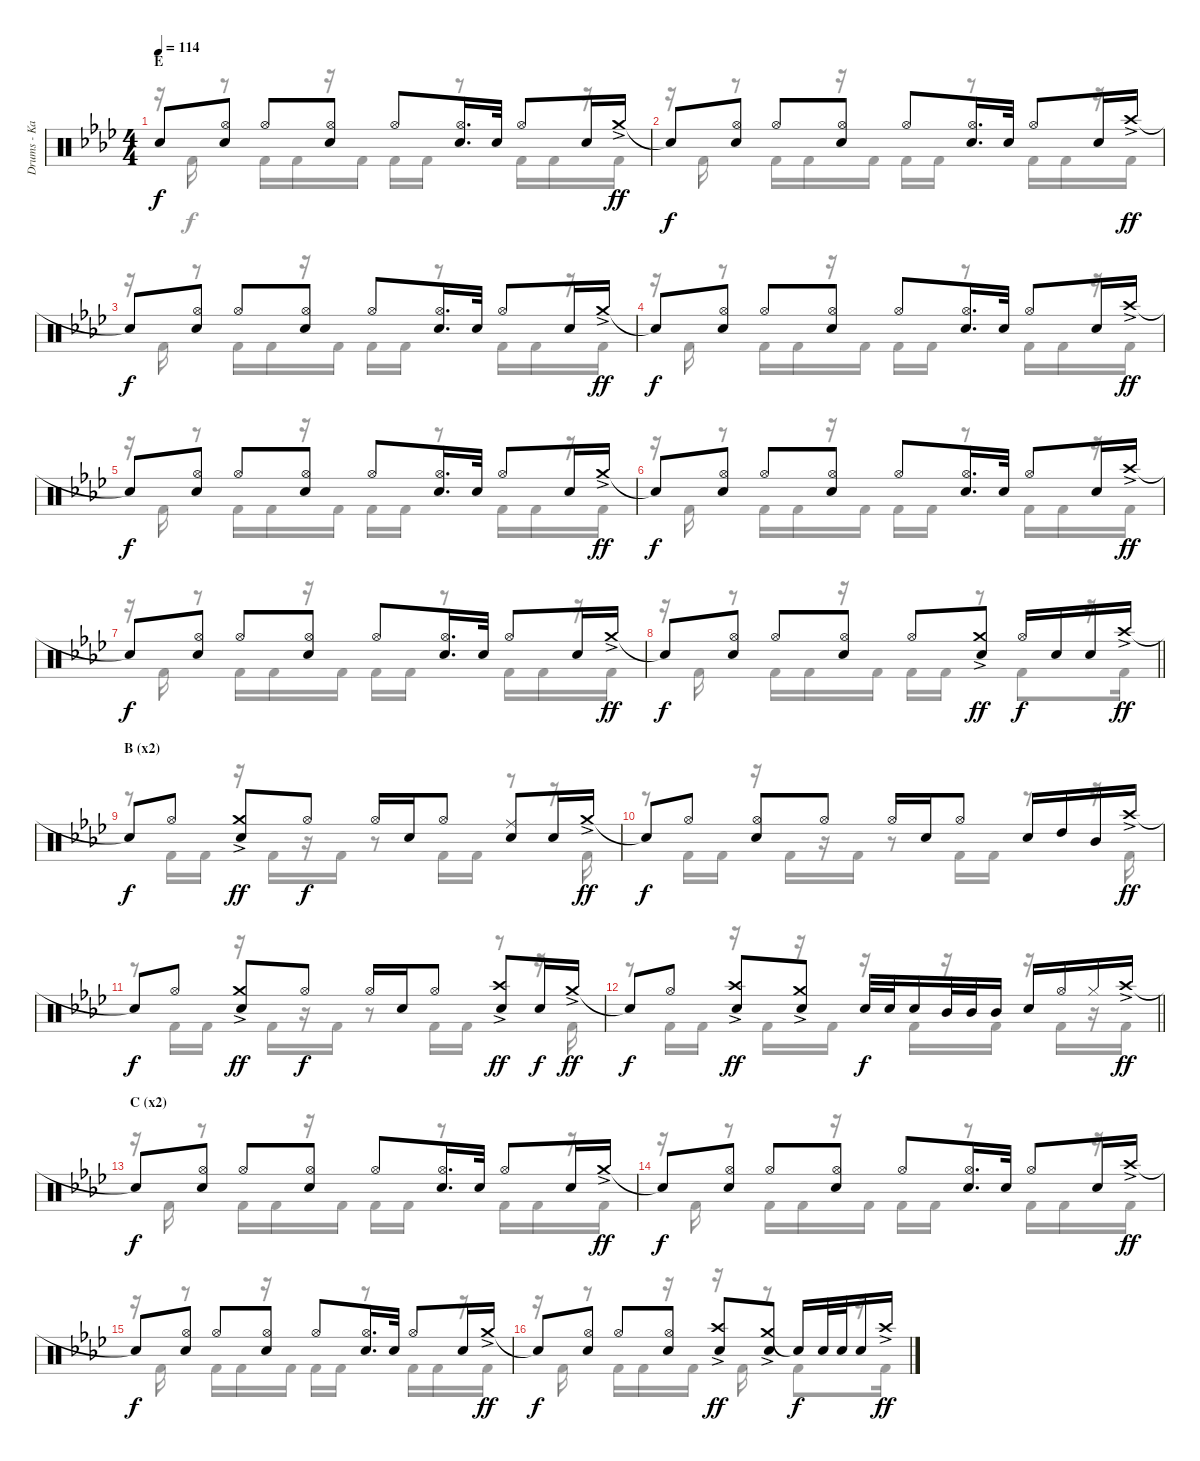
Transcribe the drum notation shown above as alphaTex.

\track ("Drums - Kai" "Drums - Ka") {instrument percussion}
\staff {score}
\articulation defaults
\voice
\ts (4 4)
\section ("" "E")
\tempo 114
\clef neutral
\ks ab "Snare (hit)"{t}.8{dy f}
("Hi-Hat (open)" "Snare (hit) 2").8 "Hi-Hat (open)".8 ("Hi-Hat (open)" "Snare (hit) 2").8 "Hi-Hat (open)".8 ("Hi-Hat (open)" "Snare (hit) 2").16{d} "Snare (hit) 2".32 "Hi-Hat (open)".8 "Snare (hit) 2".16 "Crash medium (hit)"{ac}.16{dy ff} |
"Snare (hit)"{t}.8{dy f} ("Hi-Hat (open)" "Snare (hit) 2").8 "Hi-Hat (open)".8 ("Hi-Hat (open)" "Snare (hit) 2").8 "Hi-Hat (open)".8 ("Hi-Hat (open)" "Snare (hit) 2").16{d} "Snare (hit) 2".32 "Hi-Hat (open)".8 "Snare (hit) 2".16 "Crash high (hit)"{ac}.16{dy ff} |
"Snare (hit)"{t}.8{dy f} ("Hi-Hat (open)" "Snare (hit) 2").8 "Hi-Hat (open)".8 ("Hi-Hat (open)" "Snare (hit) 2").8 "Hi-Hat (open)".8 ("Hi-Hat (open)" "Snare (hit) 2").16{d} "Snare (hit) 2".32 "Hi-Hat (open)".8 "Snare (hit) 2".16 "Crash medium (hit)"{ac}.16{dy ff} |
"Snare (hit)"{t}.8{dy f} ("Hi-Hat (open)" "Snare (hit) 2").8 "Hi-Hat (open)".8 ("Hi-Hat (open)" "Snare (hit) 2").8 "Hi-Hat (open)".8 ("Hi-Hat (open)" "Snare (hit) 2").16{d} "Snare (hit) 2".32 "Hi-Hat (open)".8 "Snare (hit) 2".16 "Crash high (hit)"{ac}.16{dy ff} |
"Snare (hit)"{t}.8{dy f} ("Hi-Hat (open)" "Snare (hit) 2").8 "Hi-Hat (open)".8 ("Hi-Hat (open)" "Snare (hit) 2").8 "Hi-Hat (open)".8 ("Hi-Hat (open)" "Snare (hit) 2").16{d} "Snare (hit) 2".32 "Hi-Hat (open)".8 "Snare (hit) 2".16 "Crash medium (hit)"{ac}.16{dy ff} |
"Snare (hit)"{t}.8{dy f} ("Hi-Hat (open)" "Snare (hit) 2").8 "Hi-Hat (open)".8 ("Hi-Hat (open)" "Snare (hit) 2").8 "Hi-Hat (open)".8 ("Hi-Hat (open)" "Snare (hit) 2").16{d} "Snare (hit) 2".32 "Hi-Hat (open)".8 "Snare (hit) 2".16 "Crash high (hit)"{ac}.16{dy ff} |
"Snare (hit)"{t}.8{dy f} ("Hi-Hat (open)" "Snare (hit) 2").8 "Hi-Hat (open)".8 ("Hi-Hat (open)" "Snare (hit) 2").8 "Hi-Hat (open)".8 ("Hi-Hat (open)" "Snare (hit) 2").16{d} "Snare (hit) 2".32 "Hi-Hat (open)".8 "Snare (hit) 2".16 "Crash medium (hit)"{ac}.16{dy ff} |
\barLineRight lightlight "Snare (hit)"{t}.8{dy f}
("Hi-Hat (open)" "Snare (hit) 2").8 "Hi-Hat (open)".8 ("Hi-Hat (open)" "Snare (hit) 2").8 "Hi-Hat (open)".8 ("Crash medium (hit)"{ac} "Snare (hit) 2").8{dy ff} "Hi-Hat (open)".16{dy f} "Snare (hit) 2".16 "Snare (hit) 2".16 "Crash high (hit)"{ac}.16{dy ff} |
\section ("" "B (x2)")
"Snare (hit)"{t}.8{dy f} "Hi-Hat (open)".8 ("Crash medium (hit)"{ac} "Snare (hit) 2").8{dy ff} "Hi-Hat (open)".8{dy f} "Hi-Hat (open)".16 "Snare (hit) 2".16 "Hi-Hat (open)".8 ("Ride (middle)" "Snare (hit) 2").8 "Snare (hit) 2".16 "Crash medium (hit)"{ac}.16{dy ff} |
"Snare (hit)"{t}.8{dy f} "Hi-Hat (open)".8 ("Hi-Hat (open)" "Snare (hit) 2").8 "Hi-Hat (open)".8 "Hi-Hat (open)".16 "Snare (hit) 2".16 "Hi-Hat (open)".8 "Snare (hit) 2".16 "High Tom (hit)".16 "Mid Tom (hit)".16 "Crash high (hit)"{ac}.16{dy ff} |
"Snare (hit)"{t}.8{dy f} "Hi-Hat (open)".8 ("Crash medium (hit)"{ac} "Snare (hit) 2").8{dy ff} "Hi-Hat (open)".8{dy f} "Hi-Hat (open)".16 "Snare (hit) 2".16 "Hi-Hat (open)".8 ("Crash high (hit)"{ac} "Snare (hit) 2").8{dy ff} "Snare (hit) 2".16{dy f} "Crash medium (hit)"{ac}.16{dy ff} |
\barLineRight lightlight "Snare (hit)"{t}.8{dy f} "Hi-Hat (open)".8
("Crash high (hit)"{ac} "Snare (hit) 2").8{dy ff} ("Crash medium (hit)"{ac} "Snare (hit) 2").8 "Snare (hit) 2".32{dy f} "Snare (hit) 2".32 "Snare (hit) 2".16 "Mid Tom (hit)".32 "Mid Tom (hit)".32 "Mid Tom (hit)".16 "Snare (hit) 2".16 "Hi-Hat (open)".16 "Hi-Hat (closed)".16 "Crash high (hit)"{ac}.16{dy ff} |
\section ("" "C (x2)")
"Snare (hit)"{t}.8{dy f} ("Hi-Hat (open)" "Snare (hit) 2").8 "Hi-Hat (open)".8 ("Hi-Hat (open)" "Snare (hit) 2").8 "Hi-Hat (open)".8 ("Hi-Hat (open)" "Snare (hit) 2").16{d} "Snare (hit) 2".32 "Hi-Hat (open)".8 "Snare (hit) 2".16 "Crash medium (hit)"{ac}.16{dy ff} |
"Snare (hit)"{t}.8{dy f} ("Hi-Hat (open)" "Snare (hit) 2").8 "Hi-Hat (open)".8 ("Hi-Hat (open)" "Snare (hit) 2").8 "Hi-Hat (open)".8 ("Hi-Hat (open)" "Snare (hit) 2").16{d} "Snare (hit) 2".32 "Hi-Hat (open)".8 "Snare (hit) 2".16 "Crash high (hit)"{ac}.16{dy ff} |
"Snare (hit)"{t}.8{dy f} ("Hi-Hat (open)" "Snare (hit) 2").8 "Hi-Hat (open)".8 ("Hi-Hat (open)" "Snare (hit) 2").8 "Hi-Hat (open)".8 ("Hi-Hat (open)" "Snare (hit) 2").16{d} "Snare (hit) 2".32 "Hi-Hat (open)".8 "Snare (hit) 2".16 "Crash medium (hit)"{ac}.16{dy ff} |
"Snare (hit)"{t}.8{dy f} ("Hi-Hat (open)" "Snare (hit) 2").8 "Hi-Hat (open)".8 ("Hi-Hat (open)" "Snare (hit) 2").8 ("Crash high (hit)"{ac} "Snare (hit) 2").8{dy ff} ("Crash medium (hit)"{ac} "Snare (hit) 2").8 "Snare (hit)"{t}.16{dy f} "Snare (hit) 2".32 "Snare (hit) 2".32 "Snare (hit) 2".16 "Crash high (hit)"{ac}.16{dy ff}
\voice
\clef neutral
\ottava regular
\simile none
\ks ab
r.16{dy f} "Kick (hit) 2".16 r.8 "Kick (hit) 2".16 "Kick (hit) 2".16 r.16 "Kick (hit) 2".16 "Kick (hit) 2".16 "Kick (hit) 2".16 r.8 "Kick (hit) 2".16 "Kick (hit) 2".16 r.16 "Kick (hit) 2".16 |
r.16 "Kick (hit) 2".16 r.8 "Kick (hit) 2".16 "Kick (hit) 2".16 r.16 "Kick (hit) 2".16 "Kick (hit) 2".16 "Kick (hit) 2".16 r.8 "Kick (hit) 2".16 "Kick (hit) 2".16 r.16 "Kick (hit) 2".16 |
r.16 "Kick (hit) 2".16 r.8 "Kick (hit) 2".16 "Kick (hit) 2".16 r.16 "Kick (hit) 2".16 "Kick (hit) 2".16 "Kick (hit) 2".16 r.8 "Kick (hit) 2".16 "Kick (hit) 2".16 r.16 "Kick (hit) 2".16 |
r.16 "Kick (hit) 2".16 r.8 "Kick (hit) 2".16 "Kick (hit) 2".16 r.16 "Kick (hit) 2".16 "Kick (hit) 2".16 "Kick (hit) 2".16 r.8 "Kick (hit) 2".16 "Kick (hit) 2".16 r.16 "Kick (hit) 2".16 |
r.16 "Kick (hit) 2".16 r.8 "Kick (hit) 2".16 "Kick (hit) 2".16 r.16 "Kick (hit) 2".16 "Kick (hit) 2".16 "Kick (hit) 2".16 r.8 "Kick (hit) 2".16 "Kick (hit) 2".16 r.16 "Kick (hit) 2".16 |
r.16 "Kick (hit) 2".16 r.8 "Kick (hit) 2".16 "Kick (hit) 2".16 r.16 "Kick (hit) 2".16 "Kick (hit) 2".16 "Kick (hit) 2".16 r.8 "Kick (hit) 2".16 "Kick (hit) 2".16 r.16 "Kick (hit) 2".16 |
r.16 "Kick (hit) 2".16 r.8 "Kick (hit) 2".16 "Kick (hit) 2".16 r.16 "Kick (hit) 2".16 "Kick (hit) 2".16 "Kick (hit) 2".16 r.8 "Kick (hit) 2".16 "Kick (hit) 2".16 r.16 "Kick (hit) 2".16 |
\barLineRight lightlight
r.16 "Kick (hit) 2".16 r.8 "Kick (hit) 2".16 "Kick (hit) 2".16 r.16 "Kick (hit) 2".16 "Kick (hit) 2".16 "Kick (hit) 2".16 r.8 "Kick (hit) 2".8 r.16 "Kick (hit) 2".16 |
r.8 "Kick (hit) 2".16 "Kick (hit) 2".16 r.16 "Kick (hit) 2".16 r.16 "Kick (hit) 2".16 r.8 "Kick (hit) 2".16 "Kick (hit) 2".16 r.8 r.16 "Kick (hit) 2".16 |
r.8 "Kick (hit) 2".16 "Kick (hit) 2".16 r.16 "Kick (hit) 2".16 r.16 "Kick (hit) 2".16 r.8 "Kick (hit) 2".16 "Kick (hit) 2".16 r.8 r.16 "Kick (hit) 2".16 |
r.8 "Kick (hit) 2".16 "Kick (hit) 2".16 r.16 "Kick (hit) 2".16 r.16 "Kick (hit) 2".16 r.8 "Kick (hit) 2".16 "Kick (hit) 2".16 r.8 r.16 "Kick (hit) 2".16 |
\barLineRight lightlight
r.8 "Kick (hit) 2".16 "Kick (hit) 2".16 r.16 "Kick (hit) 2".16 r.16 "Kick (hit) 2".16 r.16 "Kick (hit) 2".16 r.16 "Kick (hit) 2".16 r.16 "Kick (hit) 2".16 r.16 "Kick (hit) 2".16 |
r.16 "Kick (hit) 2".16 r.8 "Kick (hit) 2".16 "Kick (hit) 2".16 r.16 "Kick (hit) 2".16 "Kick (hit) 2".16 "Kick (hit) 2".16 r.8 "Kick (hit) 2".16 "Kick (hit) 2".16 r.16 "Kick (hit) 2".16 |
r.16 "Kick (hit) 2".16 r.8 "Kick (hit) 2".16 "Kick (hit) 2".16 r.16 "Kick (hit) 2".16 "Kick (hit) 2".16 "Kick (hit) 2".16 r.8 "Kick (hit) 2".16 "Kick (hit) 2".16 r.16 "Kick (hit) 2".16 |
r.16 "Kick (hit) 2".16 r.8 "Kick (hit) 2".16 "Kick (hit) 2".16 r.16 "Kick (hit) 2".16 "Kick (hit) 2".16 "Kick (hit) 2".16 r.8 "Kick (hit) 2".16 "Kick (hit) 2".16 r.16 "Kick (hit) 2".16 |
r.16 "Kick (hit) 2".16 r.8 "Kick (hit) 2".16 "Kick (hit) 2".16 r.16 "Kick (hit) 2".16 r.16 "Kick (hit) 2".16 r.8 "Kick (hit) 2".8 r.16 "Kick (hit) 2".16
